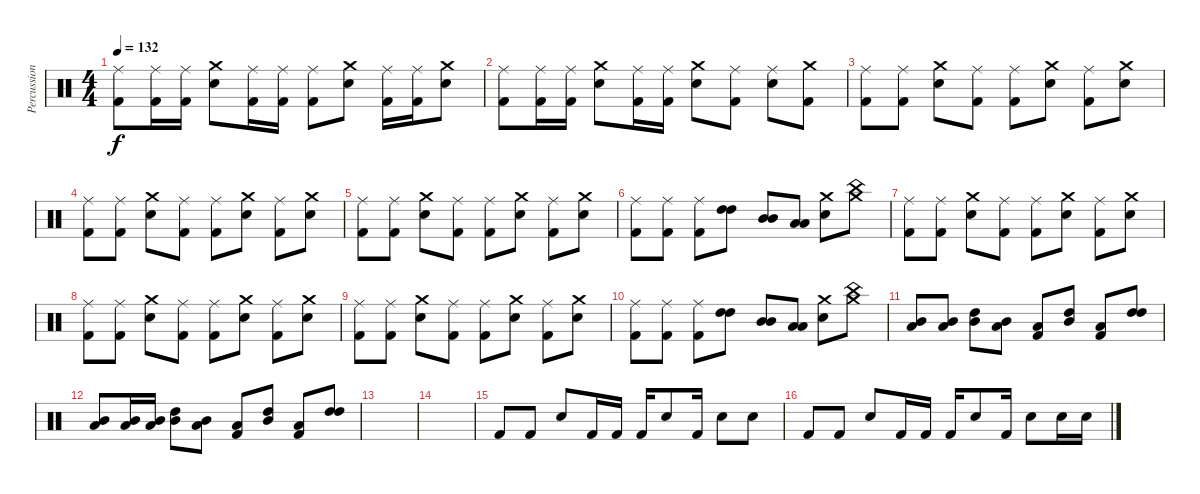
\track ("Percussion" "Percussion") {instrument percussion}
\staff {score}
\articulation defaults
\ts (4 4)
\tempo 132
\clef neutral
\ks c
("Ride (middle)" "Kick (hit) 2").8{dy f} ("Ride (middle)" "Kick (hit) 2").16 ("Ride (middle)" "Kick (hit) 2").16 ("Crash medium (hit)" "Electric Snare (hit)").8 ("Ride (middle)" "Kick (hit) 2").16 ("Ride (middle)" "Kick (hit) 2").16 ("Ride (middle)" "Kick (hit) 2").8 ("Crash medium (hit)" "Electric Snare (hit)").8 ("Ride (middle)" "Kick (hit) 2").16 ("Ride (middle)" "Kick (hit) 2").16 ("Crash medium (hit)" "Electric Snare (hit)").8 |
("Ride (middle)" "Kick (hit) 2").8 ("Ride (middle)" "Kick (hit) 2").16 ("Ride (middle)" "Kick (hit) 2").16 ("Crash medium (hit)" "Electric Snare (hit)").8 ("Ride (middle)" "Kick (hit) 2").16 ("Ride (middle)" "Kick (hit) 2").16 ("Crash medium (hit)" "Electric Snare (hit)").8 ("Ride (middle)" "Kick (hit) 2").8 ("Ride (middle)" "Electric Snare (hit)").8 ("Crash medium (hit)" "Kick (hit) 2").8 |
("Ride (middle)" "Kick (hit) 2").8 ("Ride (middle)" "Kick (hit) 2").8 ("Crash medium (hit)" "Electric Snare (hit)").8 ("Ride (middle)" "Kick (hit) 2").8 ("Ride (middle)" "Kick (hit) 2").8 ("Crash medium (hit)" "Electric Snare (hit)").8 ("Ride (middle)" "Kick (hit) 2").8 ("Crash medium (hit)" "Electric Snare (hit)").8 |
("Ride (middle)" "Kick (hit) 2").8 ("Ride (middle)" "Kick (hit) 2").8 ("Crash medium (hit)" "Electric Snare (hit)").8 ("Ride (middle)" "Kick (hit) 2").8 ("Ride (middle)" "Kick (hit) 2").8 ("Crash medium (hit)" "Electric Snare (hit)").8 ("Ride (middle)" "Kick (hit) 2").8 ("Crash medium (hit)" "Electric Snare (hit)").8 |
("Ride (middle)" "Kick (hit) 2").8 ("Ride (middle)" "Kick (hit) 2").8 ("Crash medium (hit)" "Electric Snare (hit)").8 ("Ride (middle)" "Kick (hit) 2").8 ("Ride (middle)" "Kick (hit) 2").8 ("Crash medium (hit)" "Electric Snare (hit)").8 ("Ride (middle)" "Kick (hit) 2").8 ("Crash medium (hit)" "Electric Snare (hit)").8 |
("Ride (middle)" "Kick (hit) 2").8 ("Ride (middle)" "Kick (hit) 2").8 ("Ride (middle)" "Kick (hit) 2").8 ("High Tom (hit)" "High Tom (hit)").8 ("Mid Tom (hit)" "Mid Tom (hit)").8 ("Low Tom (hit)" "Low Tom (hit)").8 ("Electric Snare (hit)" "Crash medium (hit)").8 ("Crash medium (hit)" "China (hit)").8 |
("Ride (middle)" "Kick (hit) 2").8 ("Ride (middle)" "Kick (hit) 2").8 ("Crash medium (hit)" "Electric Snare (hit)").8 ("Ride (middle)" "Kick (hit) 2").8 ("Ride (middle)" "Kick (hit) 2").8 ("Crash medium (hit)" "Electric Snare (hit)").8 ("Ride (middle)" "Kick (hit) 2").8 ("Crash medium (hit)" "Electric Snare (hit)").8 |
("Ride (middle)" "Kick (hit) 2").8 ("Ride (middle)" "Kick (hit) 2").8 ("Crash medium (hit)" "Electric Snare (hit)").8 ("Ride (middle)" "Kick (hit) 2").8 ("Ride (middle)" "Kick (hit) 2").8 ("Crash medium (hit)" "Electric Snare (hit)").8 ("Ride (middle)" "Kick (hit) 2").8 ("Crash medium (hit)" "Electric Snare (hit)").8 |
("Ride (middle)" "Kick (hit) 2").8 ("Ride (middle)" "Kick (hit) 2").8 ("Crash medium (hit)" "Electric Snare (hit)").8 ("Ride (middle)" "Kick (hit) 2").8 ("Ride (middle)" "Kick (hit) 2").8 ("Crash medium (hit)" "Electric Snare (hit)").8 ("Ride (middle)" "Kick (hit) 2").8 ("Crash medium (hit)" "Electric Snare (hit)").8 |
("Ride (middle)" "Kick (hit) 2").8 ("Ride (middle)" "Kick (hit) 2").8 ("Ride (middle)" "Kick (hit) 2").8 ("High Tom (hit)" "High Tom (hit)").8 ("Mid Tom (hit)" "Mid Tom (hit)").8 ("Low Tom (hit)" "Low Tom (hit)").8 ("Electric Snare (hit)" "Crash medium (hit)").8 ("Crash medium (hit)" "China (hit)").8 |
("Mid Tom (hit)" "Low Tom (hit)").8 ("Mid Tom (hit)" "Low Tom (hit)").8 ("High Tom (hit)" "Mid Tom (hit)").8 ("Mid Tom (hit)" "Low Tom (hit)").8 ("Low Tom (hit)" "Kick (hit) 2").8 ("High Tom (hit)" "Mid Tom (hit)").8 ("Low Tom (hit)" "Kick (hit) 2").8 ("High Tom (hit)" "High Tom (hit)").8 |
("Mid Tom (hit)" "Low Tom (hit)").8 ("Mid Tom (hit)" "Low Tom (hit)").16 ("Mid Tom (hit)" "Low Tom (hit)").16 ("High Tom (hit)" "Mid Tom (hit)").8 ("Mid Tom (hit)" "Low Tom (hit)").8 ("Low Tom (hit)" "Kick (hit) 2").8 ("High Tom (hit)" "Mid Tom (hit)").8 ("Low Tom (hit)" "Kick (hit) 2").8 ("High Tom (hit)" "High Tom (hit)").8 |
|
|
"Kick (hit) 2".8 "Kick (hit) 2".8 "Electric Snare (hit)".8 "Kick (hit) 2".16 "Kick (hit) 2".16 "Kick (hit) 2".16 "Electric Snare (hit)".8 "Kick (hit) 2".16 "Electric Snare (hit)".8 "Electric Snare (hit)".8 |
"Kick (hit) 2".8 "Kick (hit) 2".8 "Electric Snare (hit)".8 "Kick (hit) 2".16 "Kick (hit) 2".16 "Kick (hit) 2".16 "Electric Snare (hit)".8 "Kick (hit) 2".16 "Electric Snare (hit)".8 "Electric Snare (hit)".16 "Electric Snare (hit)".16
